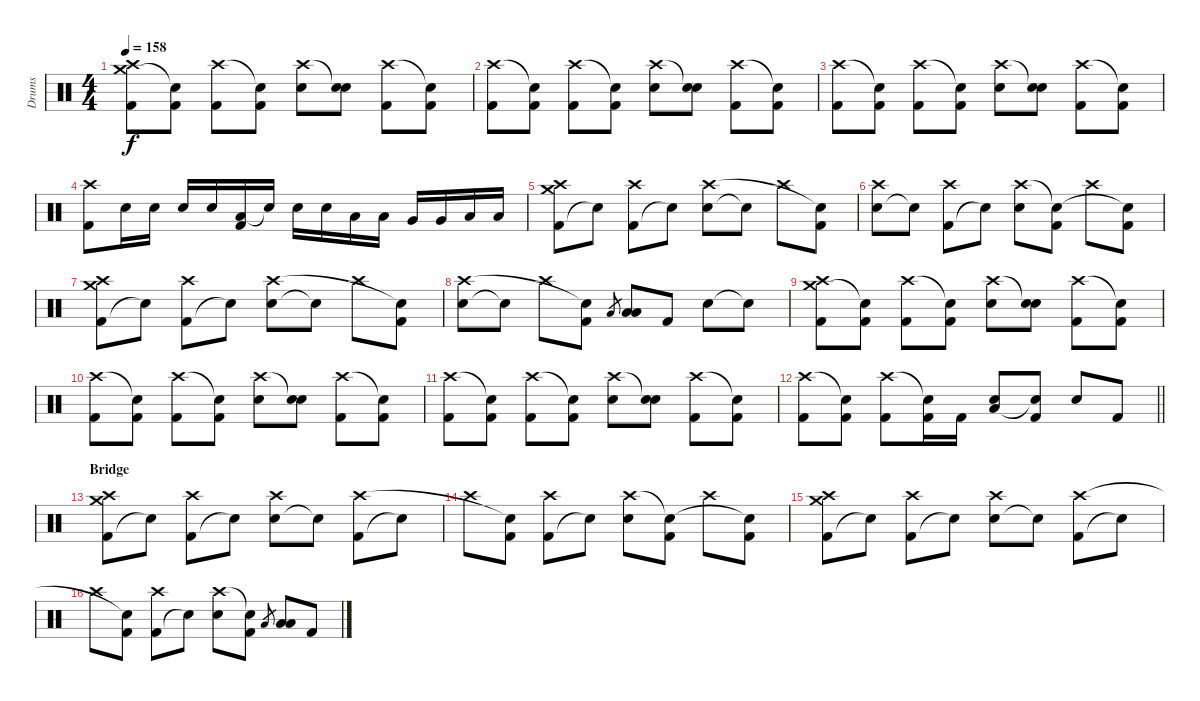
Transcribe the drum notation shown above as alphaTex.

\track ("Drums" "Drums") {instrument percussion}
\staff {score}
\articulation defaults
\ts (4 4)
\tempo 158
\clef neutral
\ks c
("Kick (hit) 2" "Crash medium (hit)" "Crash high (hit)").8{dy f} ("Kick (hit) 2" "Snare (hit)"{t}).8 ("Kick (hit) 2" "Crash high (hit)").8 ("Kick (hit) 2" "Snare (hit)"{t}).8 ("Electric Snare (hit)" "Crash high (hit)").8 ("Electric Snare (hit)" "Snare (hit)"{t}).8 ("Kick (hit) 2" "Crash high (hit)").8 ("Kick (hit) 2" "Snare (hit)"{t}).8 |
("Kick (hit) 2" "Crash high (hit)").8 ("Kick (hit) 2" "Snare (hit)"{t}).8 ("Kick (hit) 2" "Crash high (hit)").8 ("Kick (hit) 2" "Snare (hit)"{t}).8 ("Electric Snare (hit)" "Crash high (hit)").8 ("Electric Snare (hit)" "Snare (hit)"{t}).8 ("Kick (hit) 2" "Crash high (hit)").8 ("Kick (hit) 2" "Snare (hit)"{t}).8 |
("Kick (hit) 2" "Crash high (hit)").8 ("Kick (hit) 2" "Snare (hit)"{t}).8 ("Kick (hit) 2" "Crash high (hit)").8 ("Kick (hit) 2" "Snare (hit)"{t}).8 ("Electric Snare (hit)" "Crash high (hit)").8 ("Electric Snare (hit)" "Snare (hit)"{t}).8 ("Kick (hit) 2" "Crash high (hit)").8 ("Kick (hit) 2" "Snare (hit)"{t}).8 |
("Kick (hit) 2" "Crash high (hit)").8 "Electric Snare (hit)".16 "Electric Snare (hit)".16 "Electric Snare (hit)".16 "Electric Snare (hit)".16 ("Low Tom (hit)" "Kick (hit) 2").16 "Snare (hit)"{t}.16 "Electric Snare (hit)".16 "Electric Snare (hit)".16 "Low Tom (hit)".16 "Low Tom (hit)".16 "Very Low Tom (hit)".16 "Very Low Tom (hit)".16 "Low Floor Tom (hit)".16 "Low Floor Tom (hit)".16 |
("Kick (hit) 2" "Crash medium (hit)" "Crash high (hit)").8 "Snare (hit)"{t}.8 ("Kick (hit) 2" "Crash high (hit)").8 "Snare (hit)"{t}.8 ("Electric Snare (hit)" "Crash high (hit)").8 "Snare (hit)"{t}.8 "Crash high (hit)".8 ("Kick (hit) 2" "Snare (hit)"{t}).8 |
("Electric Snare (hit)" "Crash high (hit)").8 "Snare (hit)"{t}.8 ("Kick (hit) 2" "Crash high (hit)").8 "Snare (hit)"{t}.8 ("Electric Snare (hit)" "Crash high (hit)").8 ("Kick (hit) 2" "Snare (hit)"{t}).8 "Crash high (hit)".8 ("Kick (hit) 2" "Snare (hit)"{t}).8 |
("Kick (hit) 2" "Crash medium (hit)" "Crash high (hit)").8 "Snare (hit)"{t}.8 ("Kick (hit) 2" "Crash high (hit)").8 "Snare (hit)"{t}.8 ("Electric Snare (hit)" "Crash high (hit)").8 "Snare (hit)"{t}.8 "Crash high (hit)".8 ("Kick (hit) 2" "Snare (hit)"{t}).8 |
("Electric Snare (hit)" "Crash high (hit)").8 "Snare (hit)"{t}.8 "Crash high (hit)".8 ("Kick (hit) 2" "Snare (hit)"{t}).8 "Low Tom (hit)".8{gr} ("Low Tom (hit)" "Low Floor Tom (hit)").8 "Kick (hit) 2".8 "Electric Snare (hit)".8 "Snare (hit)"{t}.8 |
("Kick (hit) 2" "Crash medium (hit)" "Crash high (hit)").8 ("Kick (hit) 2" "Snare (hit)"{t}).8 ("Kick (hit) 2" "Crash high (hit)").8 ("Kick (hit) 2" "Snare (hit)"{t}).8 ("Electric Snare (hit)" "Crash high (hit)").8 ("Electric Snare (hit)" "Snare (hit)"{t}).8 ("Kick (hit) 2" "Crash high (hit)").8 ("Kick (hit) 2" "Snare (hit)"{t}).8 |
("Kick (hit) 2" "Crash high (hit)").8 ("Kick (hit) 2" "Snare (hit)"{t}).8 ("Kick (hit) 2" "Crash high (hit)").8 ("Kick (hit) 2" "Snare (hit)"{t}).8 ("Electric Snare (hit)" "Crash high (hit)").8 ("Electric Snare (hit)" "Snare (hit)"{t}).8 ("Kick (hit) 2" "Crash high (hit)").8 ("Kick (hit) 2" "Snare (hit)"{t}).8 |
("Kick (hit) 2" "Crash high (hit)").8 ("Kick (hit) 2" "Snare (hit)"{t}).8 ("Kick (hit) 2" "Crash high (hit)").8 ("Kick (hit) 2" "Snare (hit)"{t}).8 ("Electric Snare (hit)" "Crash high (hit)").8 ("Electric Snare (hit)" "Snare (hit)"{t}).8 ("Kick (hit) 2" "Crash high (hit)").8 ("Kick (hit) 2" "Snare (hit)"{t}).8 |
\barLineRight lightlight
("Kick (hit) 2" "Crash high (hit)").8 ("Kick (hit) 2" "Snare (hit)"{t}).8 ("Kick (hit) 2" "Crash high (hit)").8 ("Kick (hit) 2" "Snare (hit)"{t}).16 "Kick (hit) 2".16 ("Electric Snare (hit)" "Low Floor Tom (hit)").8 ("Kick (hit) 2" "Snare (hit)"{t}).8 "Electric Snare (hit)".8 "Kick (hit) 2".8 |
\section ("" "Bridge")
("Kick (hit) 2" "Crash medium (hit)" "Crash high (hit)").8 "Snare (hit)"{t}.8 ("Kick (hit) 2" "Crash high (hit)").8 "Snare (hit)"{t}.8 ("Electric Snare (hit)" "Crash high (hit)").8 "Snare (hit)"{t}.8 ("Kick (hit) 2" "Crash high (hit)").8 "Snare (hit)"{t}.8 |
"Crash high (hit)".8 ("Kick (hit) 2" "Snare (hit)"{t}).8 ("Kick (hit) 2" "Crash high (hit)").8 "Snare (hit)"{t}.8 ("Electric Snare (hit)" "Crash high (hit)").8 ("Kick (hit) 2" "Snare (hit)"{t}).8 "Crash high (hit)".8 ("Kick (hit) 2" "Snare (hit)"{t}).8 |
("Kick (hit) 2" "Crash medium (hit)" "Crash high (hit)").8 "Snare (hit)"{t}.8 ("Kick (hit) 2" "Crash high (hit)").8 "Snare (hit)"{t}.8 ("Electric Snare (hit)" "Crash high (hit)").8 "Snare (hit)"{t}.8 ("Kick (hit) 2" "Crash high (hit)").8 "Snare (hit)"{t}.8 |
"Crash high (hit)".8 ("Kick (hit) 2" "Snare (hit)"{t}).8 ("Kick (hit) 2" "Crash high (hit)").8 "Snare (hit)"{t}.8 ("Electric Snare (hit)" "Crash high (hit)").8 ("Kick (hit) 2" "Snare (hit)"{t}).8 "Low Tom (hit)".8{gr} ("Low Tom (hit)" "Low Floor Tom (hit)").8 "Kick (hit) 2".8
